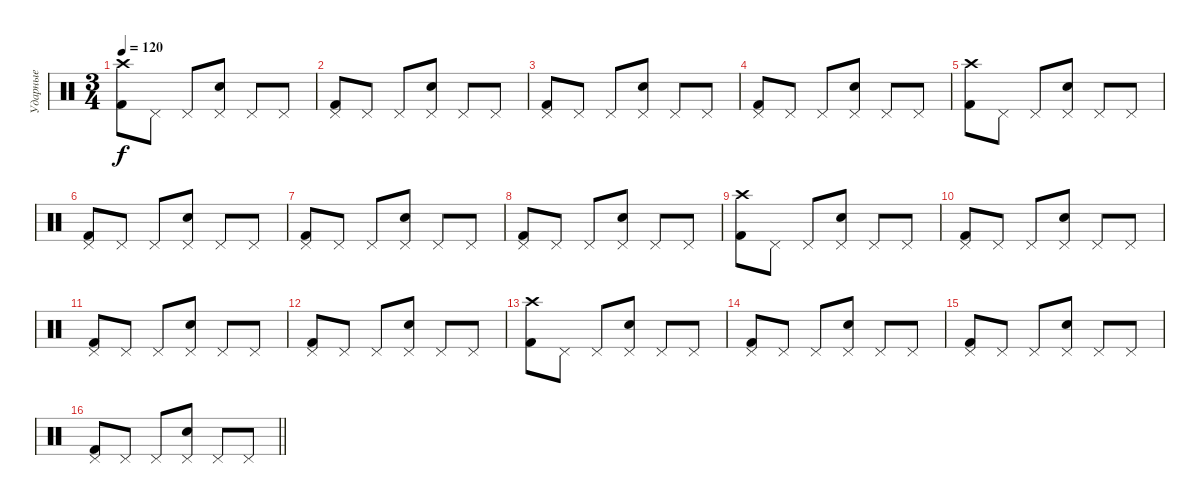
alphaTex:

\track ("Ударные" "Ударные") {instrument percussion}
\staff {score}
\articulation defaults
\ts (3 4)
\tempo 120
\clef neutral
\ks c
("Crash high (hit)" "Kick (hit) 2").8{dy f} "Pedal Hi-Hat (hit)".8 "Pedal Hi-Hat (hit)".8 ("Pedal Hi-Hat (hit)" "Snare (hit) 2").8 "Pedal Hi-Hat (hit)".8 "Pedal Hi-Hat (hit)".8 |
("Pedal Hi-Hat (hit)" "Kick (hit) 2").8 "Pedal Hi-Hat (hit)".8 "Pedal Hi-Hat (hit)".8 ("Pedal Hi-Hat (hit)" "Snare (hit) 2").8 "Pedal Hi-Hat (hit)".8 "Pedal Hi-Hat (hit)".8 |
("Pedal Hi-Hat (hit)" "Kick (hit) 2").8 "Pedal Hi-Hat (hit)".8 "Pedal Hi-Hat (hit)".8 ("Pedal Hi-Hat (hit)" "Snare (hit) 2").8 "Pedal Hi-Hat (hit)".8 "Pedal Hi-Hat (hit)".8 |
("Pedal Hi-Hat (hit)" "Kick (hit) 2").8 "Pedal Hi-Hat (hit)".8 "Pedal Hi-Hat (hit)".8 ("Pedal Hi-Hat (hit)" "Snare (hit) 2").8 "Pedal Hi-Hat (hit)".8 "Pedal Hi-Hat (hit)".8 |
("Crash high (hit)" "Kick (hit) 2").8 "Pedal Hi-Hat (hit)".8 "Pedal Hi-Hat (hit)".8 ("Pedal Hi-Hat (hit)" "Snare (hit) 2").8 "Pedal Hi-Hat (hit)".8 "Pedal Hi-Hat (hit)".8 |
("Pedal Hi-Hat (hit)" "Kick (hit) 2").8 "Pedal Hi-Hat (hit)".8 "Pedal Hi-Hat (hit)".8 ("Pedal Hi-Hat (hit)" "Snare (hit) 2").8 "Pedal Hi-Hat (hit)".8 "Pedal Hi-Hat (hit)".8 |
("Pedal Hi-Hat (hit)" "Kick (hit) 2").8 "Pedal Hi-Hat (hit)".8 "Pedal Hi-Hat (hit)".8 ("Pedal Hi-Hat (hit)" "Snare (hit) 2").8 "Pedal Hi-Hat (hit)".8 "Pedal Hi-Hat (hit)".8 |
("Pedal Hi-Hat (hit)" "Kick (hit) 2").8 "Pedal Hi-Hat (hit)".8 "Pedal Hi-Hat (hit)".8 ("Pedal Hi-Hat (hit)" "Snare (hit) 2").8 "Pedal Hi-Hat (hit)".8 "Pedal Hi-Hat (hit)".8 |
("Crash high (hit)" "Kick (hit) 2").8 "Pedal Hi-Hat (hit)".8 "Pedal Hi-Hat (hit)".8 ("Pedal Hi-Hat (hit)" "Snare (hit) 2").8 "Pedal Hi-Hat (hit)".8 "Pedal Hi-Hat (hit)".8 |
("Pedal Hi-Hat (hit)" "Kick (hit) 2").8 "Pedal Hi-Hat (hit)".8 "Pedal Hi-Hat (hit)".8 ("Pedal Hi-Hat (hit)" "Snare (hit) 2").8 "Pedal Hi-Hat (hit)".8 "Pedal Hi-Hat (hit)".8 |
("Pedal Hi-Hat (hit)" "Kick (hit) 2").8 "Pedal Hi-Hat (hit)".8 "Pedal Hi-Hat (hit)".8 ("Pedal Hi-Hat (hit)" "Snare (hit) 2").8 "Pedal Hi-Hat (hit)".8 "Pedal Hi-Hat (hit)".8 |
("Pedal Hi-Hat (hit)" "Kick (hit) 2").8 "Pedal Hi-Hat (hit)".8 "Pedal Hi-Hat (hit)".8 ("Pedal Hi-Hat (hit)" "Snare (hit) 2").8 "Pedal Hi-Hat (hit)".8 "Pedal Hi-Hat (hit)".8 |
("Crash high (hit)" "Kick (hit) 2").8 "Pedal Hi-Hat (hit)".8 "Pedal Hi-Hat (hit)".8 ("Pedal Hi-Hat (hit)" "Snare (hit) 2").8 "Pedal Hi-Hat (hit)".8 "Pedal Hi-Hat (hit)".8 |
("Pedal Hi-Hat (hit)" "Kick (hit) 2").8 "Pedal Hi-Hat (hit)".8 "Pedal Hi-Hat (hit)".8 ("Pedal Hi-Hat (hit)" "Snare (hit) 2").8 "Pedal Hi-Hat (hit)".8 "Pedal Hi-Hat (hit)".8 |
("Pedal Hi-Hat (hit)" "Kick (hit) 2").8 "Pedal Hi-Hat (hit)".8 "Pedal Hi-Hat (hit)".8 ("Pedal Hi-Hat (hit)" "Snare (hit) 2").8 "Pedal Hi-Hat (hit)".8 "Pedal Hi-Hat (hit)".8 |
\barLineRight lightlight
("Pedal Hi-Hat (hit)" "Kick (hit) 2").8 "Pedal Hi-Hat (hit)".8 "Pedal Hi-Hat (hit)".8 ("Pedal Hi-Hat (hit)" "Snare (hit) 2").8 "Pedal Hi-Hat (hit)".8 "Pedal Hi-Hat (hit)".8
